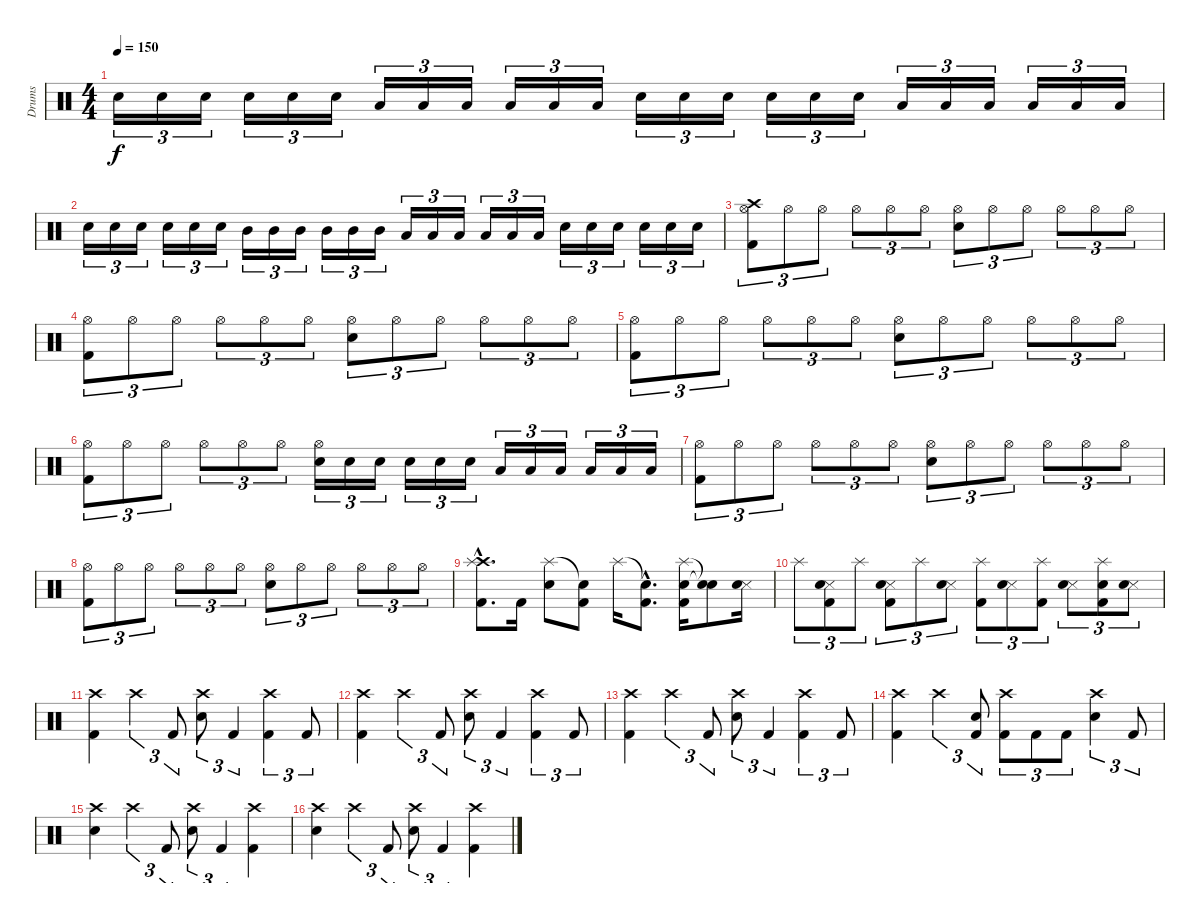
\track ("Drums" "Drums") {instrument percussion}
\staff {score}
\articulation defaults
\ts (4 4)
\tempo 150
\clef neutral
\ks c "Electric Snare (hit)".16{tu (3 2) dy f} "Electric Snare (hit)".16{tu (3 2)} "Electric Snare (hit)".16{tu (3 2)} "Electric Snare (hit)".16{tu (3 2)} "Electric Snare (hit)".16{tu (3 2)} "Electric Snare (hit)".16{tu (3 2)} "Low Tom (hit)".16{tu (3 2)} "Low Tom (hit)".16{tu (3 2)} "Low Tom (hit)".16{tu (3 2)} "Low Tom (hit)".16{tu (3 2)} "Low Tom (hit)".16{tu (3 2)} "Low Tom (hit)".16{tu (3 2)} "Electric Snare (hit)".16{tu (3 2)} "Electric Snare (hit)".16{tu (3 2)} "Electric Snare (hit)".16{tu (3 2)} "Electric Snare (hit)".16{tu (3 2)} "Electric Snare (hit)".16{tu (3 2)} "Electric Snare (hit)".16{tu (3 2)} "Low Tom (hit)".16{tu (3 2)} "Low Tom (hit)".16{tu (3 2)} "Low Tom (hit)".16{tu (3 2)} "Low Tom (hit)".16{tu (3 2)} "Low Tom (hit)".16{tu (3 2)} "Low Tom (hit)".16{tu (3 2)}
|
"Electric Snare (hit)".16{tu (3 2)} "Electric Snare (hit)".16{tu (3 2)} "Electric Snare (hit)".16{tu (3 2)} "Electric Snare (hit)".16{tu (3 2)} "Electric Snare (hit)".16{tu (3 2)} "Electric Snare (hit)".16{tu (3 2)} "Mid Tom (hit)".16{tu (3 2)} "Mid Tom (hit)".16{tu (3 2)} "Mid Tom (hit)".16{tu (3 2)} "Mid Tom (hit)".16{tu (3 2)} "Mid Tom (hit)".16{tu (3 2)} "Mid Tom (hit)".16{tu (3 2)} "Low Tom (hit)".16{tu (3 2)} "Low Tom (hit)".16{tu (3 2)} "Low Tom (hit)".16{tu (3 2)} "Low Tom (hit)".16{tu (3 2)} "Low Tom (hit)".16{tu (3 2)} "Low Tom (hit)".16{tu (3 2)} "Electric Snare (hit)".16{tu (3 2)} "Electric Snare (hit)".16{tu (3 2)} "Electric Snare (hit)".16{tu (3 2)} "Electric Snare (hit)".16{tu (3 2)} "Electric Snare (hit)".16{tu (3 2)} "Electric Snare (hit)".16{tu (3 2)} |
("Crash high (hit)" "Hi-Hat (open)" "Kick (hit) 2").8{tu (3 2)} "Hi-Hat (open)".8{tu (3 2)} "Hi-Hat (open)".8{tu (3 2)} "Hi-Hat (open)".8{tu (3 2)} "Hi-Hat (open)".8{tu (3 2)} "Hi-Hat (open)".8{tu (3 2)} ("Hi-Hat (open)" "Electric Snare (hit)").8{tu (3 2)} "Hi-Hat (open)".8{tu (3 2)} "Hi-Hat (open)".8{tu (3 2)} "Hi-Hat (open)".8{tu (3 2)} "Hi-Hat (open)".8{tu (3 2)} "Hi-Hat (open)".8{tu (3 2)} |
("Hi-Hat (open)" "Kick (hit) 2").8{tu (3 2)} "Hi-Hat (open)".8{tu (3 2)} "Hi-Hat (open)".8{tu (3 2)} "Hi-Hat (open)".8{tu (3 2)} "Hi-Hat (open)".8{tu (3 2)} "Hi-Hat (open)".8{tu (3 2)} ("Hi-Hat (open)" "Electric Snare (hit)").8{tu (3 2)} "Hi-Hat (open)".8{tu (3 2)} "Hi-Hat (open)".8{tu (3 2)} "Hi-Hat (open)".8{tu (3 2)} "Hi-Hat (open)".8{tu (3 2)} "Hi-Hat (open)".8{tu (3 2)} |
("Hi-Hat (open)" "Kick (hit) 2").8{tu (3 2)} "Hi-Hat (open)".8{tu (3 2)} "Hi-Hat (open)".8{tu (3 2)} "Hi-Hat (open)".8{tu (3 2)} "Hi-Hat (open)".8{tu (3 2)} "Hi-Hat (open)".8{tu (3 2)} ("Hi-Hat (open)" "Electric Snare (hit)").8{tu (3 2)} "Hi-Hat (open)".8{tu (3 2)} "Hi-Hat (open)".8{tu (3 2)} "Hi-Hat (open)".8{tu (3 2)} "Hi-Hat (open)".8{tu (3 2)} "Hi-Hat (open)".8{tu (3 2)} |
("Hi-Hat (open)" "Kick (hit) 2").8{tu (3 2)} "Hi-Hat (open)".8{tu (3 2)} "Hi-Hat (open)".8{tu (3 2)} "Hi-Hat (open)".8{tu (3 2)} "Hi-Hat (open)".8{tu (3 2)} "Hi-Hat (open)".8{tu (3 2)} ("Hi-Hat (open)" "Electric Snare (hit)").16{tu (3 2)} "Electric Snare (hit)".16{tu (3 2)} "Electric Snare (hit)".16{tu (3 2)} "Electric Snare (hit)".16{tu (3 2)} "Electric Snare (hit)".16{tu (3 2)} "Electric Snare (hit)".16{tu (3 2)} "Low Floor Tom (hit)".16{tu (3 2)} "Low Floor Tom (hit)".16{tu (3 2)} "Low Floor Tom (hit)".16{tu (3 2)} "Low Floor Tom (hit)".16{tu (3 2)} "Low Floor Tom (hit)".16{tu (3 2)} "Low Floor Tom (hit)".16{tu (3 2)} |
("Hi-Hat (open)" "Kick (hit) 2").8{tu (3 2)} "Hi-Hat (open)".8{tu (3 2)} "Hi-Hat (open)".8{tu (3 2)} "Hi-Hat (open)".8{tu (3 2)} "Hi-Hat (open)".8{tu (3 2)} "Hi-Hat (open)".8{tu (3 2)} ("Hi-Hat (open)" "Electric Snare (hit)").8{tu (3 2)} "Hi-Hat (open)".8{tu (3 2)} "Hi-Hat (open)".8{tu (3 2)} "Hi-Hat (open)".8{tu (3 2)} "Hi-Hat (open)".8{tu (3 2)} "Hi-Hat (open)".8{tu (3 2)} |
("Hi-Hat (open)" "Kick (hit) 2").8{tu (3 2)} "Hi-Hat (open)".8{tu (3 2)} "Hi-Hat (open)".8{tu (3 2)} "Hi-Hat (open)".8{tu (3 2)} "Hi-Hat (open)".8{tu (3 2)} "Hi-Hat (open)".8{tu (3 2)} ("Hi-Hat (open)" "Electric Snare (hit)").8{tu (3 2)} "Hi-Hat (open)".8{tu (3 2)} "Hi-Hat (open)".8{tu (3 2)} "Hi-Hat (open)".8{tu (3 2)} "Hi-Hat (open)".8{tu (3 2)} "Hi-Hat (open)".8{tu (3 2)} |
("Crash high (hit)"{hac} "Splash (hit)"{hac} "Kick (hit) 2"{hac}).8{d} "Kick (hit) 2".16 ("Splash (hit)" "Electric Snare (hit)").8 ("Snare (hit)"{t} "Kick (hit) 2").8 "Splash (hit)".16 ("Snare (hit)"{hac t} "Kick (hit) 2"{hac}).8{d} ("Splash (hit)" "Electric Snare (hit)" "Kick (hit) 2").16 ("Snare (hit)"{t} "Snare (hit)"{t}).8 ("Snare (side stick) 3" "Electric Snare (hit)").16 |
"Splash (hit)".8{tu (3 2)} ("Snare (side stick) 3" "Electric Snare (hit)" "Kick (hit) 2").8{tu (3 2)} "Splash (hit)".8{tu (3 2)} ("Snare (side stick) 3" "Electric Snare (hit)" "Kick (hit) 2").8{tu (3 2)} "Splash (hit)".8{tu (3 2)} ("Snare (side stick) 3" "Electric Snare (hit)").8{tu (3 2)} ("Splash (hit)" "Kick (hit) 2").8{tu (3 2)} ("Snare (side stick) 3" "Electric Snare (hit)").8{tu (3 2)} ("Splash (hit)" "Kick (hit) 2").8{tu (3 2)} ("Snare (side stick) 3" "Electric Snare (hit)").8{tu (3 2)} ("Splash (hit)" "Electric Snare (hit)" "Kick (hit) 2").8{tu (3 2)} ("Snare (side stick) 3" "Electric Snare (hit)").8{tu (3 2)} |
("Crash high (hit)" "Kick (hit) 2").4 "Crash high (hit)".4{tu (3 2)} "Kick (hit) 2".8{tu (3 2)} ("Crash high (hit)" "Electric Snare (hit)").8{tu (3 2)} "Kick (hit) 2".4{tu (3 2)} ("Crash high (hit)" "Kick (hit) 2").4{tu (3 2)} "Kick (hit) 2".8{tu (3 2)} |
("Crash high (hit)" "Kick (hit) 2").4 "Crash high (hit)".4{tu (3 2)} "Kick (hit) 2".8{tu (3 2)} ("Crash high (hit)" "Electric Snare (hit)").8{tu (3 2)} "Kick (hit) 2".4{tu (3 2)} ("Crash high (hit)" "Kick (hit) 2").4{tu (3 2)} "Kick (hit) 2".8{tu (3 2)} |
("Crash high (hit)" "Kick (hit) 2").4 "Crash high (hit)".4{tu (3 2)} "Kick (hit) 2".8{tu (3 2)} ("Crash high (hit)" "Electric Snare (hit)").8{tu (3 2)} "Kick (hit) 2".4{tu (3 2)} ("Crash high (hit)" "Kick (hit) 2").4{tu (3 2)} "Kick (hit) 2".8{tu (3 2)} |
("Crash high (hit)" "Kick (hit) 2").4 "Crash high (hit)".4{tu (3 2)} ("Electric Snare (hit)" "Kick (hit) 2").8{tu (3 2)} ("Crash high (hit)" "Kick (hit) 2").8{tu (3 2)} "Kick (hit) 2".8{tu (3 2)} "Kick (hit) 2".8{tu (3 2)} ("Crash high (hit)" "Electric Snare (hit)").4{tu (3 2)} "Kick (hit) 2".8{tu (3 2)} |
("Crash high (hit)" "Electric Snare (hit)").4 "Crash high (hit)".4{tu (3 2)} "Kick (hit) 2".8{tu (3 2)} ("Crash high (hit)" "Electric Snare (hit)").8{tu (3 2)} "Kick (hit) 2".4{tu (3 2)} ("Crash high (hit)" "Kick (hit) 2").4 |
("Crash high (hit)" "Electric Snare (hit)").4 "Crash high (hit)".4{tu (3 2)} "Kick (hit) 2".8{tu (3 2)} ("Crash high (hit)" "Electric Snare (hit)").8{tu (3 2)} "Kick (hit) 2".4{tu (3 2)} ("Crash high (hit)" "Kick (hit) 2").4
